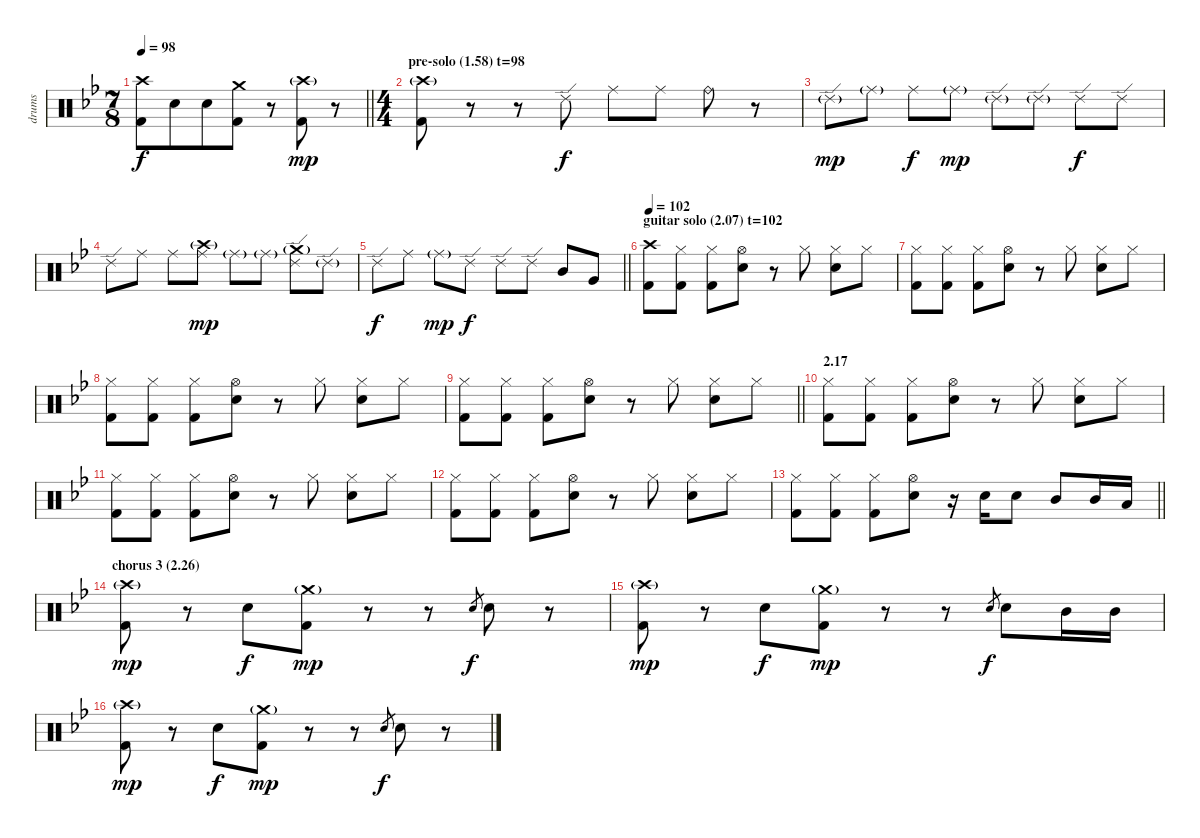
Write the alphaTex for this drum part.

\track ("drums" "drums") {instrument percussion}
\staff {score}
\articulation defaults
\ts (7 8)
\tempo 98
\clef neutral
\barLineRight lightlight
\ks bb
("Crash high (hit)" "Kick (hit) 2").8{dy f} "Electric Snare (hit)".8 "Electric Snare (hit)".8 ("Crash medium (hit)" "Kick (hit) 2").8 r.8 ("Crash high (hit)"{g} "Kick (hit) 2").8{dy mp} r.8 |
\ts (4 4)
\section ("" "pre-solo (1.58) t=98")
("Crash high (hit)"{g} "Kick (hit) 2").8 r.8 r.8 "Ride (edge) 2".8{dy f} "Ride (middle)".8 "Ride (middle)".8 "Ride (bell)".8 r.8 |
"Ride (edge) 2"{g}.8{dy mp} "Ride (middle)"{g}.8 "Ride (middle)".8{dy f} "Ride (middle)"{g}.8{dy mp} "Ride (edge) 2"{g}.8 "Ride (edge) 2"{g}.8 "Ride (edge) 2".8{dy f} "Ride (edge) 2".8 |
"Ride (edge) 2".8 "Ride (middle)".8 "Ride (middle)".8 ("Ride (middle)" "Crash high (hit)"{g}).8{dy mp} "Ride (middle)"{g}.8 "Ride (middle)"{g}.8 ("Ride (edge) 2" "Crash medium (hit)"{g}).8 "Ride (edge) 2"{g}.8 |
\barLineRight lightlight "Ride (edge) 2".8{dy f} "Ride (middle)".8 "Ride (middle)"{g}.8{dy mp} "Ride (edge) 2".8{dy f} "Ride (edge) 2".8 "Ride (edge) 2".8 "Mid Tom (hit)".8 "Very Low Tom (hit)".8
|
\section ("" "guitar solo (2.07) t=102")
\tempo 102
("Crash high (hit)" "Kick (hit) 2").8 ("Hi-Hat (closed)" "Kick (hit) 2").8 ("Hi-Hat (closed)" "Kick (hit) 2").8 ("Hi-Hat (open)" "Electric Snare (hit)").8 r.8 "Hi-Hat (closed)".8 ("Hi-Hat (closed)" "Electric Snare (hit)").8 "Hi-Hat (closed)".8 |
("Hi-Hat (closed)" "Kick (hit) 2").8 ("Hi-Hat (closed)" "Kick (hit) 2").8 ("Hi-Hat (closed)" "Kick (hit) 2").8 ("Hi-Hat (open)" "Electric Snare (hit)").8 r.8 "Hi-Hat (closed)".8 ("Hi-Hat (closed)" "Electric Snare (hit)").8 "Hi-Hat (closed)".8 |
("Hi-Hat (closed)" "Kick (hit) 2").8 ("Hi-Hat (closed)" "Kick (hit) 2").8 ("Hi-Hat (closed)" "Kick (hit) 2").8 ("Hi-Hat (open)" "Electric Snare (hit)").8 r.8 "Hi-Hat (closed)".8 ("Hi-Hat (closed)" "Electric Snare (hit)").8 "Hi-Hat (closed)".8 |
\barLineRight lightlight
("Hi-Hat (closed)" "Kick (hit) 2").8 ("Hi-Hat (closed)" "Kick (hit) 2").8 ("Hi-Hat (closed)" "Kick (hit) 2").8 ("Hi-Hat (open)" "Electric Snare (hit)").8 r.8 "Hi-Hat (closed)".8 ("Hi-Hat (closed)" "Electric Snare (hit)").8 "Hi-Hat (closed)".8 |
\section ("" "2.17")
("Hi-Hat (closed)" "Kick (hit) 2").8 ("Hi-Hat (closed)" "Kick (hit) 2").8 ("Hi-Hat (closed)" "Kick (hit) 2").8 ("Hi-Hat (open)" "Electric Snare (hit)").8 r.8 "Hi-Hat (closed)".8 ("Hi-Hat (closed)" "Electric Snare (hit)").8 "Hi-Hat (closed)".8 |
("Hi-Hat (closed)" "Kick (hit) 2").8 ("Hi-Hat (closed)" "Kick (hit) 2").8 ("Hi-Hat (closed)" "Kick (hit) 2").8 ("Hi-Hat (open)" "Electric Snare (hit)").8 r.8 "Hi-Hat (closed)".8 ("Hi-Hat (closed)" "Electric Snare (hit)").8 "Hi-Hat (closed)".8 |
("Hi-Hat (closed)" "Kick (hit) 2").8 ("Hi-Hat (closed)" "Kick (hit) 2").8 ("Hi-Hat (closed)" "Kick (hit) 2").8 ("Hi-Hat (open)" "Electric Snare (hit)").8 r.8 "Hi-Hat (closed)".8 ("Hi-Hat (closed)" "Electric Snare (hit)").8 "Hi-Hat (closed)".8 |
\barLineRight lightlight
("Hi-Hat (closed)" "Kick (hit) 2").8 ("Hi-Hat (closed)" "Kick (hit) 2").8 ("Hi-Hat (closed)" "Kick (hit) 2").8 ("Hi-Hat (open)" "Electric Snare (hit)").8 r.16 "Electric Snare (hit)".16 "Electric Snare (hit)".8 "Mid Tom (hit)".8 "Mid Tom (hit)".16 "Low Tom (hit)".16 |
\section ("" "chorus 3 (2.26)")
("Crash high (hit)"{g} "Kick (hit) 2").8{dy mp} r.8 "Electric Snare (hit)".8{dy f} ("Crash medium (hit)"{g} "Kick (hit) 2").8{dy mp} r.8 r.8 "Electric Snare (hit)".8{gr dy f} "Electric Snare (hit)".8 r.8 |
("Crash high (hit)"{g} "Kick (hit) 2").8{dy mp} r.8 "Electric Snare (hit)".8{dy f} ("Crash medium (hit)"{g} "Kick (hit) 2").8{dy mp} r.8 r.8 "Electric Snare (hit)".8{gr dy f} "Electric Snare (hit)".8 "Mid Tom (hit)".16 "Mid Tom (hit)".16 |
("Crash high (hit)"{g} "Kick (hit) 2").8{dy mp} r.8 "Electric Snare (hit)".8{dy f} ("Crash medium (hit)"{g} "Kick (hit) 2").8{dy mp} r.8 r.8 "Electric Snare (hit)".8{gr dy f} "Electric Snare (hit)".8 r.8
